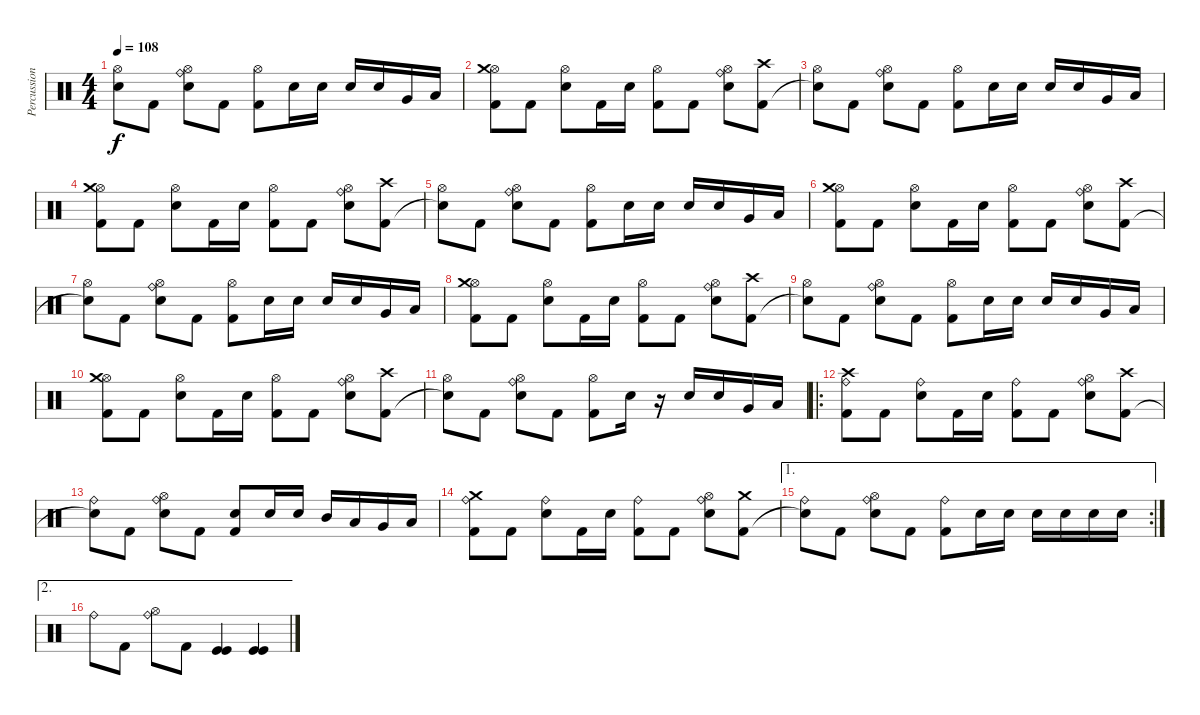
\track ("Percussion" "Percussion") {instrument percussion}
\staff {score}
\articulation defaults
\ts (4 4)
\tempo 108
\clef neutral
\ks c
("Hi-Hat (open)" "Snare (hit)"{t}).8{dy f} "Kick (hit) 2".8 ("Ride (bell)" "Hi-Hat (open)" "Snare (hit) 2").8 "Kick (hit) 2".8 ("Hi-Hat (open)" "Kick (hit) 2").8 "Electric Snare (hit)".16 "Electric Snare (hit)".16 "Electric Snare (hit)".16 "Electric Snare (hit)".16 "Very Low Tom (hit)".16 "Low Floor Tom (hit)".16 |
("Hi-Hat (open)" "Crash medium (hit)" "Kick (hit) 2").8 "Kick (hit) 2".8 ("Hi-Hat (open)" "Snare (hit) 2").8 "Kick (hit) 2".16 "Snare (hit) 2".16 ("Hi-Hat (open)" "Kick (hit) 2").8 "Kick (hit) 2".8 ("Ride (bell)" "Hi-Hat (open)" "Snare (hit) 2").8 ("Crash high (hit)" "Kick (hit) 2").8 |
("Hi-Hat (open)" "Snare (hit)"{t}).8 "Kick (hit) 2".8 ("Ride (bell)" "Hi-Hat (open)" "Snare (hit) 2").8 "Kick (hit) 2".8 ("Hi-Hat (open)" "Kick (hit) 2").8 "Electric Snare (hit)".16 "Electric Snare (hit)".16 "Electric Snare (hit)".16 "Electric Snare (hit)".16 "Very Low Tom (hit)".16 "Low Floor Tom (hit)".16 |
("Hi-Hat (open)" "Crash medium (hit)" "Kick (hit) 2").8 "Kick (hit) 2".8 ("Hi-Hat (open)" "Snare (hit) 2").8 "Kick (hit) 2".16 "Snare (hit) 2".16 ("Hi-Hat (open)" "Kick (hit) 2").8 "Kick (hit) 2".8 ("Ride (bell)" "Hi-Hat (open)" "Snare (hit) 2").8 ("Crash high (hit)" "Kick (hit) 2").8 |
("Hi-Hat (open)" "Snare (hit)"{t}).8 "Kick (hit) 2".8 ("Ride (bell)" "Hi-Hat (open)" "Snare (hit) 2").8 "Kick (hit) 2".8 ("Hi-Hat (open)" "Kick (hit) 2").8 "Electric Snare (hit)".16 "Electric Snare (hit)".16 "Electric Snare (hit)".16 "Electric Snare (hit)".16 "Very Low Tom (hit)".16 "Low Floor Tom (hit)".16 |
("Hi-Hat (open)" "Crash medium (hit)" "Kick (hit) 2").8 "Kick (hit) 2".8 ("Hi-Hat (open)" "Snare (hit) 2").8 "Kick (hit) 2".16 "Snare (hit) 2".16 ("Hi-Hat (open)" "Kick (hit) 2").8 "Kick (hit) 2".8 ("Ride (bell)" "Hi-Hat (open)" "Snare (hit) 2").8 ("Crash high (hit)" "Kick (hit) 2").8 |
("Hi-Hat (open)" "Snare (hit)"{t}).8 "Kick (hit) 2".8 ("Ride (bell)" "Hi-Hat (open)" "Snare (hit) 2").8 "Kick (hit) 2".8 ("Hi-Hat (open)" "Kick (hit) 2").8 "Electric Snare (hit)".16 "Electric Snare (hit)".16 "Electric Snare (hit)".16 "Electric Snare (hit)".16 "Very Low Tom (hit)".16 "Low Floor Tom (hit)".16 |
("Hi-Hat (open)" "Crash medium (hit)" "Kick (hit) 2").8 "Kick (hit) 2".8 ("Hi-Hat (open)" "Snare (hit) 2").8 "Kick (hit) 2".16 "Snare (hit) 2".16 ("Hi-Hat (open)" "Kick (hit) 2").8 "Kick (hit) 2".8 ("Ride (bell)" "Hi-Hat (open)" "Snare (hit) 2").8 ("Crash high (hit)" "Kick (hit) 2").8 |
("Hi-Hat (open)" "Snare (hit)"{t}).8 "Kick (hit) 2".8 ("Ride (bell)" "Hi-Hat (open)" "Snare (hit) 2").8 "Kick (hit) 2".8 ("Hi-Hat (open)" "Kick (hit) 2").8 "Electric Snare (hit)".16 "Electric Snare (hit)".16 "Electric Snare (hit)".16 "Electric Snare (hit)".16 "Very Low Tom (hit)".16 "Low Floor Tom (hit)".16 |
("Hi-Hat (open)" "Crash medium (hit)" "Kick (hit) 2").8 "Kick (hit) 2".8 ("Hi-Hat (open)" "Snare (hit) 2").8 "Kick (hit) 2".16 "Snare (hit) 2".16 ("Hi-Hat (open)" "Kick (hit) 2").8 "Kick (hit) 2".8 ("Ride (bell)" "Hi-Hat (open)" "Snare (hit) 2").8 ("Crash high (hit)" "Kick (hit) 2").8 |
("Hi-Hat (open)" "Snare (hit)"{t}).8 "Kick (hit) 2".8 ("Ride (bell)" "Hi-Hat (open)" "Snare (hit) 2").8 "Kick (hit) 2".8 ("Hi-Hat (open)" "Kick (hit) 2").8 "Electric Snare (hit)".16 r.16 "Electric Snare (hit)".16 "Electric Snare (hit)".16 "Very Low Tom (hit)".16 "Low Floor Tom (hit)".16 |
\ro
("Ride (bell)" "Crash high (hit)" "Kick (hit) 2").8 "Kick (hit) 2".8 ("Ride (bell)" "Snare (hit) 2").8 "Kick (hit) 2".16 "Snare (hit) 2".16 ("Ride (bell)" "Kick (hit) 2").8 "Kick (hit) 2".8 ("Ride (bell)" "Hi-Hat (open)" "Snare (hit) 2").8 ("Crash high (hit)" "Kick (hit) 2").8 |
("Ride (bell)" "Snare (hit)"{t}).8 "Kick (hit) 2".8 ("Ride (bell)" "Hi-Hat (open)" "Snare (hit) 2").8 "Kick (hit) 2".8 ("Electric Snare (hit)" "Kick (hit) 2").8 "Electric Snare (hit)".16 "Electric Snare (hit)".16 "Mid Tom (hit)".16 "Low Tom (hit)".16 "Very Low Tom (hit)".16 "Low Floor Tom (hit)".16 |
("Ride (bell)" "Crash medium (hit)" "Kick (hit) 2").8 "Kick (hit) 2".8 ("Ride (bell)" "Snare (hit) 2").8 "Kick (hit) 2".16 "Snare (hit) 2".16 ("Ride (bell)" "Kick (hit) 2").8 "Kick (hit) 2".8 ("Ride (bell)" "Hi-Hat (open)" "Snare (hit) 2").8 ("Crash medium (hit)" "Kick (hit) 2").8 |
\ae 1
\rc 2
("Ride (bell)" "Snare (hit)"{t}).8 "Kick (hit) 2".8 ("Ride (bell)" "Hi-Hat (open)" "Snare (hit) 2").8 "Kick (hit) 2".8 ("Ride (bell)" "Kick (hit) 2").8 "Electric Snare (hit)".16 "Electric Snare (hit)".16 "Electric Snare (hit)".16 "Electric Snare (hit)".16 "Electric Snare (hit)".16 "Electric Snare (hit)".16 |
\ae 2 "Ride (bell)".8 "Kick (hit) 2".8
("Ride (bell)" "Hi-Hat (open)").8 "Kick (hit) 2".8 ("Kick (hit)" "Kick (hit)").4 ("Kick (hit)" "Kick (hit)").4
